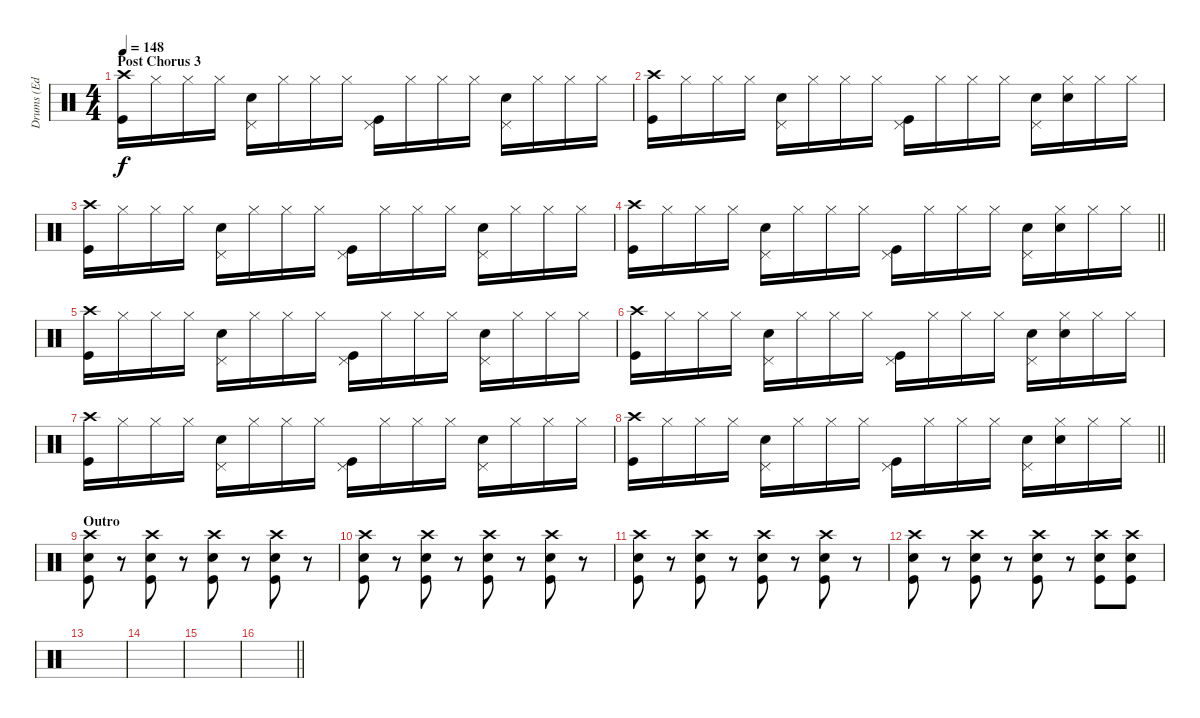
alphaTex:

\track ("Drums (Ed Lay)" "Drums (Ed ") {instrument percussion}
\staff {score}
\articulation defaults
\ts (4 4)
\section ("" "Post Chorus 3")
\tempo 148
\clef neutral
\ks c
("Crash high (hit)" "Kick (hit)").16{dy f} "Hi-Hat (closed)".16 "Hi-Hat (closed)".16 "Hi-Hat (closed)".16 ("Pedal Hi-Hat (hit)" "Electric Snare (hit)").16 "Hi-Hat (closed)".16 "Hi-Hat (closed)".16 "Hi-Hat (closed)".16 ("Pedal Hi-Hat (hit)" "Kick (hit)").16 "Hi-Hat (closed)".16 "Hi-Hat (closed)".16 "Hi-Hat (closed)".16 ("Pedal Hi-Hat (hit)" "Electric Snare (hit)").16 "Hi-Hat (closed)".16 "Hi-Hat (closed)".16 "Hi-Hat (closed)".16 |
("Crash high (hit)" "Kick (hit)").16 "Hi-Hat (closed)".16 "Hi-Hat (closed)".16 "Hi-Hat (closed)".16 ("Pedal Hi-Hat (hit)" "Electric Snare (hit)").16 "Hi-Hat (closed)".16 "Hi-Hat (closed)".16 "Hi-Hat (closed)".16 ("Pedal Hi-Hat (hit)" "Kick (hit)").16 "Hi-Hat (closed)".16 "Hi-Hat (closed)".16 "Hi-Hat (closed)".16 ("Pedal Hi-Hat (hit)" "Electric Snare (hit)").16 ("Hi-Hat (closed)" "Electric Snare (hit)").16 "Hi-Hat (closed)".16 "Hi-Hat (closed)".16 |
("Crash high (hit)" "Kick (hit)").16 "Hi-Hat (closed)".16 "Hi-Hat (closed)".16 "Hi-Hat (closed)".16 ("Pedal Hi-Hat (hit)" "Electric Snare (hit)").16 "Hi-Hat (closed)".16 "Hi-Hat (closed)".16 "Hi-Hat (closed)".16 ("Pedal Hi-Hat (hit)" "Kick (hit)").16 "Hi-Hat (closed)".16 "Hi-Hat (closed)".16 "Hi-Hat (closed)".16 ("Pedal Hi-Hat (hit)" "Electric Snare (hit)").16 "Hi-Hat (closed)".16 "Hi-Hat (closed)".16 "Hi-Hat (closed)".16 |
\barLineRight lightlight
("Crash high (hit)" "Kick (hit)").16 "Hi-Hat (closed)".16 "Hi-Hat (closed)".16 "Hi-Hat (closed)".16 ("Pedal Hi-Hat (hit)" "Electric Snare (hit)").16 "Hi-Hat (closed)".16 "Hi-Hat (closed)".16 "Hi-Hat (closed)".16 ("Pedal Hi-Hat (hit)" "Kick (hit)").16 "Hi-Hat (closed)".16 "Hi-Hat (closed)".16 "Hi-Hat (closed)".16 ("Pedal Hi-Hat (hit)" "Electric Snare (hit)").16 ("Hi-Hat (closed)" "Electric Snare (hit)").16 "Hi-Hat (closed)".16 "Hi-Hat (closed)".16 |
("Crash high (hit)" "Kick (hit)").16 "Hi-Hat (closed)".16 "Hi-Hat (closed)".16 "Hi-Hat (closed)".16 ("Pedal Hi-Hat (hit)" "Electric Snare (hit)").16 "Hi-Hat (closed)".16 "Hi-Hat (closed)".16 "Hi-Hat (closed)".16 ("Pedal Hi-Hat (hit)" "Kick (hit)").16 "Hi-Hat (closed)".16 "Hi-Hat (closed)".16 "Hi-Hat (closed)".16 ("Pedal Hi-Hat (hit)" "Electric Snare (hit)").16 "Hi-Hat (closed)".16 "Hi-Hat (closed)".16 "Hi-Hat (closed)".16 |
("Crash high (hit)" "Kick (hit)").16 "Hi-Hat (closed)".16 "Hi-Hat (closed)".16 "Hi-Hat (closed)".16 ("Pedal Hi-Hat (hit)" "Electric Snare (hit)").16 "Hi-Hat (closed)".16 "Hi-Hat (closed)".16 "Hi-Hat (closed)".16 ("Pedal Hi-Hat (hit)" "Kick (hit)").16 "Hi-Hat (closed)".16 "Hi-Hat (closed)".16 "Hi-Hat (closed)".16 ("Pedal Hi-Hat (hit)" "Electric Snare (hit)").16 ("Hi-Hat (closed)" "Electric Snare (hit)").16 "Hi-Hat (closed)".16 "Hi-Hat (closed)".16 |
("Crash high (hit)" "Kick (hit)").16 "Hi-Hat (closed)".16 "Hi-Hat (closed)".16 "Hi-Hat (closed)".16 ("Pedal Hi-Hat (hit)" "Electric Snare (hit)").16 "Hi-Hat (closed)".16 "Hi-Hat (closed)".16 "Hi-Hat (closed)".16 ("Pedal Hi-Hat (hit)" "Kick (hit)").16 "Hi-Hat (closed)".16 "Hi-Hat (closed)".16 "Hi-Hat (closed)".16 ("Pedal Hi-Hat (hit)" "Electric Snare (hit)").16 "Hi-Hat (closed)".16 "Hi-Hat (closed)".16 "Hi-Hat (closed)".16 |
\barLineRight lightlight
("Crash high (hit)" "Kick (hit)").16 "Hi-Hat (closed)".16 "Hi-Hat (closed)".16 "Hi-Hat (closed)".16 ("Pedal Hi-Hat (hit)" "Electric Snare (hit)").16 "Hi-Hat (closed)".16 "Hi-Hat (closed)".16 "Hi-Hat (closed)".16 ("Pedal Hi-Hat (hit)" "Kick (hit)").16 "Hi-Hat (closed)".16 "Hi-Hat (closed)".16 "Hi-Hat (closed)".16 ("Pedal Hi-Hat (hit)" "Electric Snare (hit)").16 ("Hi-Hat (closed)" "Electric Snare (hit)").16 "Hi-Hat (closed)".16 "Hi-Hat (closed)".16 |
\section ("" "Outro")
("Crash high (hit)" "Electric Snare (hit)" "Kick (hit)").8 r.8 ("Crash high (hit)" "Electric Snare (hit)" "Kick (hit)").8 r.8 ("Crash high (hit)" "Electric Snare (hit)" "Kick (hit)").8 r.8 ("Crash high (hit)" "Electric Snare (hit)" "Kick (hit)").8 r.8 |
("Crash high (hit)" "Electric Snare (hit)" "Kick (hit)").8 r.8 ("Crash high (hit)" "Electric Snare (hit)" "Kick (hit)").8 r.8 ("Crash high (hit)" "Electric Snare (hit)" "Kick (hit)").8 r.8 ("Crash high (hit)" "Electric Snare (hit)" "Kick (hit)").8 r.8 |
("Crash high (hit)" "Electric Snare (hit)" "Kick (hit)").8 r.8 ("Crash high (hit)" "Electric Snare (hit)" "Kick (hit)").8 r.8 ("Crash high (hit)" "Electric Snare (hit)" "Kick (hit)").8 r.8 ("Crash high (hit)" "Electric Snare (hit)" "Kick (hit)").8 r.8 |
("Crash high (hit)" "Electric Snare (hit)" "Kick (hit)").8 r.8 ("Crash high (hit)" "Electric Snare (hit)" "Kick (hit)").8 r.8 ("Crash high (hit)" "Electric Snare (hit)" "Kick (hit)").8 r.8 ("Crash high (hit)" "Electric Snare (hit)" "Kick (hit)").8 ("Crash high (hit)" "Electric Snare (hit)" "Kick (hit)").8 |
|
|
|
\barLineRight lightlight
